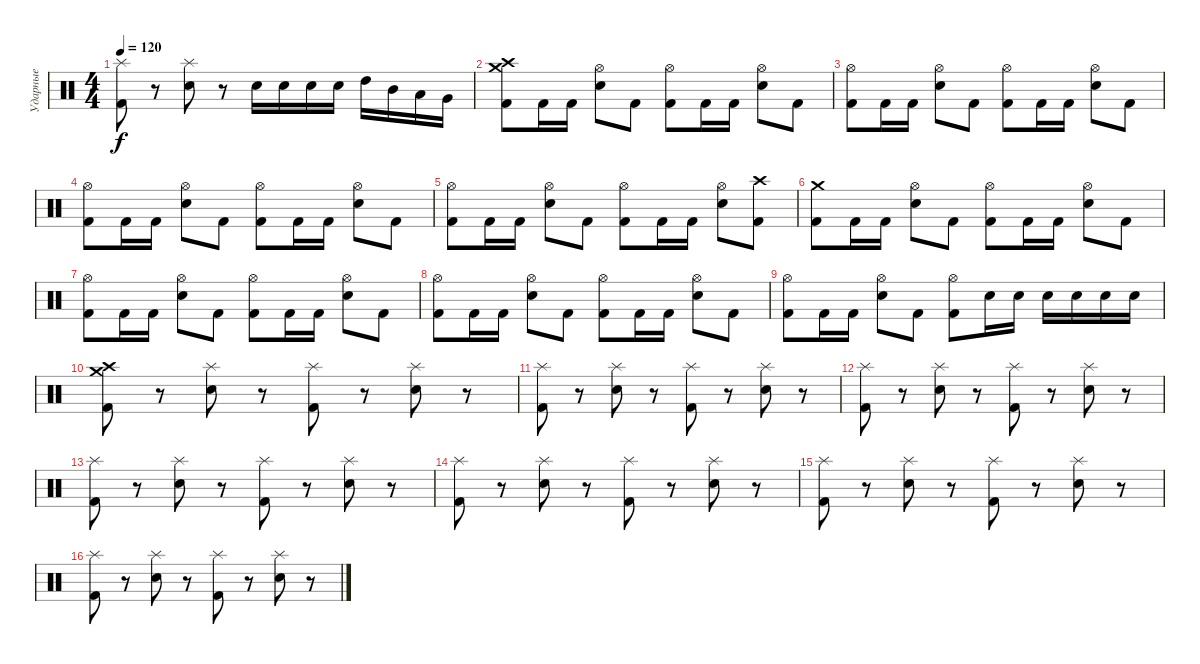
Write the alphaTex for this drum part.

\track ("Ударные" "Ударные") {instrument percussion}
\staff {score}
\articulation defaults
\ts (4 4)
\tempo 120
\clef neutral
\ks c
("Splash (hit)" "Kick (hit) 2").8{dy f} r.8 ("Splash (hit)" "Electric Snare (hit)").8 r.8 "Electric Snare (hit)".16 "Electric Snare (hit)".16 "Electric Snare (hit)".16 "Electric Snare (hit)".16 "High Tom (hit)".16 "Mid Tom (hit)".16 "Low Tom (hit)".16 "Very Low Tom (hit)".16 |
("Crash medium (hit)" "Crash high (hit)" "Kick (hit) 2").8 "Kick (hit) 2".16 "Kick (hit) 2".16 ("Hi-Hat (open)" "Electric Snare (hit)").8 "Kick (hit) 2".8 ("Hi-Hat (open)" "Kick (hit) 2").8 "Kick (hit) 2".16 "Kick (hit) 2".16 ("Hi-Hat (open)" "Electric Snare (hit)").8 "Kick (hit) 2".8 |
("Hi-Hat (open)" "Kick (hit) 2").8 "Kick (hit) 2".16 "Kick (hit) 2".16 ("Hi-Hat (open)" "Electric Snare (hit)").8 "Kick (hit) 2".8 ("Hi-Hat (open)" "Kick (hit) 2").8 "Kick (hit) 2".16 "Kick (hit) 2".16 ("Hi-Hat (open)" "Electric Snare (hit)").8 "Kick (hit) 2".8 |
("Hi-Hat (open)" "Kick (hit) 2").8 "Kick (hit) 2".16 "Kick (hit) 2".16 ("Hi-Hat (open)" "Electric Snare (hit)").8 "Kick (hit) 2".8 ("Hi-Hat (open)" "Kick (hit) 2").8 "Kick (hit) 2".16 "Kick (hit) 2".16 ("Hi-Hat (open)" "Electric Snare (hit)").8 "Kick (hit) 2".8 |
("Hi-Hat (open)" "Kick (hit) 2").8 "Kick (hit) 2".16 "Kick (hit) 2".16 ("Hi-Hat (open)" "Electric Snare (hit)").8 "Kick (hit) 2".8 ("Hi-Hat (open)" "Kick (hit) 2").8 "Kick (hit) 2".16 "Kick (hit) 2".16 ("Hi-Hat (open)" "Electric Snare (hit)").8 ("Crash high (hit)" "Kick (hit) 2").8 |
("Crash medium (hit)" "Kick (hit) 2").8 "Kick (hit) 2".16 "Kick (hit) 2".16 ("Hi-Hat (open)" "Electric Snare (hit)").8 "Kick (hit) 2".8 ("Hi-Hat (open)" "Kick (hit) 2").8 "Kick (hit) 2".16 "Kick (hit) 2".16 ("Hi-Hat (open)" "Electric Snare (hit)").8 "Kick (hit) 2".8 |
("Hi-Hat (open)" "Kick (hit) 2").8 "Kick (hit) 2".16 "Kick (hit) 2".16 ("Hi-Hat (open)" "Electric Snare (hit)").8 "Kick (hit) 2".8 ("Hi-Hat (open)" "Kick (hit) 2").8 "Kick (hit) 2".16 "Kick (hit) 2".16 ("Hi-Hat (open)" "Electric Snare (hit)").8 "Kick (hit) 2".8 |
("Hi-Hat (open)" "Kick (hit) 2").8 "Kick (hit) 2".16 "Kick (hit) 2".16 ("Hi-Hat (open)" "Electric Snare (hit)").8 "Kick (hit) 2".8 ("Hi-Hat (open)" "Kick (hit) 2").8 "Kick (hit) 2".16 "Kick (hit) 2".16 ("Hi-Hat (open)" "Electric Snare (hit)").8 "Kick (hit) 2".8 |
("Hi-Hat (open)" "Kick (hit) 2").8 "Kick (hit) 2".16 "Kick (hit) 2".16 ("Hi-Hat (open)" "Electric Snare (hit)").8 "Kick (hit) 2".8 ("Hi-Hat (open)" "Kick (hit) 2").8 "Electric Snare (hit)".16 "Electric Snare (hit)".16 "Electric Snare (hit)".16 "Electric Snare (hit)".16 "Electric Snare (hit)".16 "Electric Snare (hit)".16 |
("Crash medium (hit)" "Crash high (hit)" "Kick (hit) 2").8 r.8 ("Splash (hit)" "Electric Snare (hit)").8 r.8 ("Splash (hit)" "Kick (hit) 2").8 r.8 ("Splash (hit)" "Electric Snare (hit)").8 r.8 |
("Splash (hit)" "Kick (hit) 2").8 r.8 ("Splash (hit)" "Electric Snare (hit)").8 r.8 ("Splash (hit)" "Kick (hit) 2").8 r.8 ("Splash (hit)" "Electric Snare (hit)").8 r.8 |
("Splash (hit)" "Kick (hit) 2").8 r.8 ("Splash (hit)" "Electric Snare (hit)").8 r.8 ("Splash (hit)" "Kick (hit) 2").8 r.8 ("Splash (hit)" "Electric Snare (hit)").8 r.8 |
("Splash (hit)" "Kick (hit) 2").8 r.8 ("Splash (hit)" "Electric Snare (hit)").8 r.8 ("Splash (hit)" "Kick (hit) 2").8 r.8 ("Splash (hit)" "Electric Snare (hit)").8 r.8 |
("Splash (hit)" "Kick (hit) 2").8 r.8 ("Splash (hit)" "Electric Snare (hit)").8 r.8 ("Splash (hit)" "Kick (hit) 2").8 r.8 ("Splash (hit)" "Electric Snare (hit)").8 r.8 |
("Splash (hit)" "Kick (hit) 2").8 r.8 ("Splash (hit)" "Electric Snare (hit)").8 r.8 ("Splash (hit)" "Kick (hit) 2").8 r.8 ("Splash (hit)" "Electric Snare (hit)").8 r.8 |
("Splash (hit)" "Kick (hit) 2").8 r.8 ("Splash (hit)" "Electric Snare (hit)").8 r.8 ("Splash (hit)" "Kick (hit) 2").8 r.8 ("Splash (hit)" "Electric Snare (hit)").8 r.8
